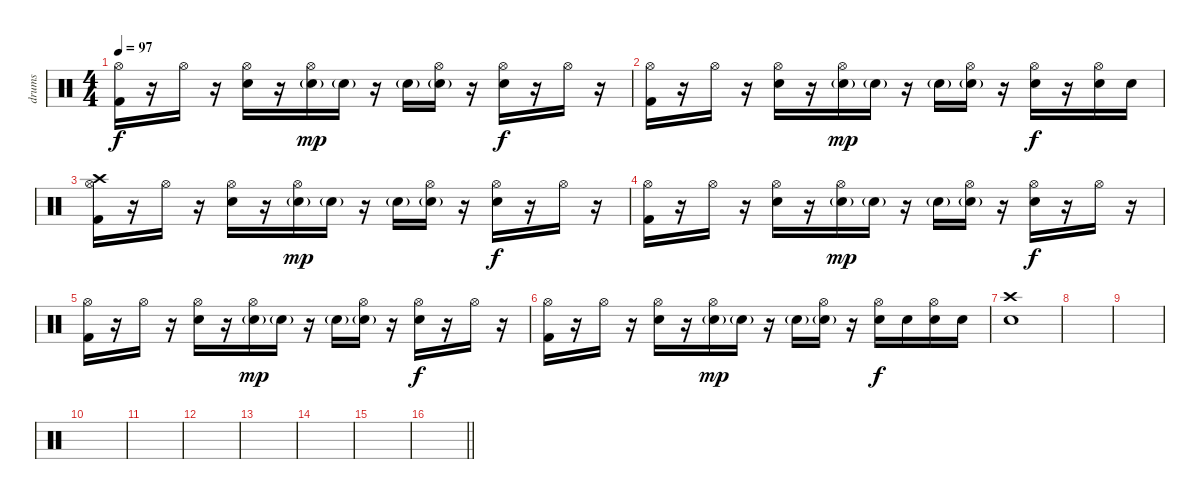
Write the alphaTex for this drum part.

\track ("drums" "drums") {instrument percussion}
\staff {score}
\articulation defaults
\ts (4 4)
\tempo 97
\clef neutral
\ks c
("Kick (hit) 2" "Hi-Hat (open)").16{dy f} r.16 "Hi-Hat (open)".16 r.16 ("Electric Snare (hit)" "Hi-Hat (open)").16 r.16 ("Electric Snare (hit)"{g} "Hi-Hat (open)").16{dy mp} "Electric Snare (hit)"{g}.16 r.16 "Electric Snare (hit)"{g}.16 ("Electric Snare (hit)"{g} "Hi-Hat (open)").16 r.16 ("Electric Snare (hit)" "Hi-Hat (open)").16{dy f} r.16 "Hi-Hat (open)".16 r.16 |
("Kick (hit) 2" "Hi-Hat (open)").16 r.16 "Hi-Hat (open)".16 r.16 ("Electric Snare (hit)" "Hi-Hat (open)").16 r.16 ("Electric Snare (hit)"{g} "Hi-Hat (open)").16{dy mp} "Electric Snare (hit)"{g}.16 r.16 "Electric Snare (hit)"{g}.16 ("Electric Snare (hit)"{g} "Hi-Hat (open)").16 r.16 ("Electric Snare (hit)" "Hi-Hat (open)").16{dy f} r.16 ("Electric Snare (hit)" "Hi-Hat (open)").16 "Electric Snare (hit)".16 |
("Kick (hit) 2" "Hi-Hat (open)" "Crash high (hit)").16 r.16 "Hi-Hat (open)".16 r.16 ("Electric Snare (hit)" "Hi-Hat (open)").16 r.16 ("Electric Snare (hit)"{g} "Hi-Hat (open)").16{dy mp} "Electric Snare (hit)"{g}.16 r.16 "Electric Snare (hit)"{g}.16 ("Electric Snare (hit)"{g} "Hi-Hat (open)").16 r.16 ("Electric Snare (hit)" "Hi-Hat (open)").16{dy f} r.16 "Hi-Hat (open)".16 r.16 |
("Kick (hit) 2" "Hi-Hat (open)").16 r.16 "Hi-Hat (open)".16 r.16 ("Electric Snare (hit)" "Hi-Hat (open)").16 r.16 ("Electric Snare (hit)"{g} "Hi-Hat (open)").16{dy mp} "Electric Snare (hit)"{g}.16 r.16 "Electric Snare (hit)"{g}.16 ("Electric Snare (hit)"{g} "Hi-Hat (open)").16 r.16 ("Electric Snare (hit)" "Hi-Hat (open)").16{dy f} r.16 "Hi-Hat (open)".16 r.16 |
("Kick (hit) 2" "Hi-Hat (open)").16 r.16 "Hi-Hat (open)".16 r.16 ("Electric Snare (hit)" "Hi-Hat (open)").16 r.16 ("Electric Snare (hit)"{g} "Hi-Hat (open)").16{dy mp} "Electric Snare (hit)"{g}.16 r.16 "Electric Snare (hit)"{g}.16 ("Electric Snare (hit)"{g} "Hi-Hat (open)").16 r.16 ("Electric Snare (hit)" "Hi-Hat (open)").16{dy f} r.16 "Hi-Hat (open)".16 r.16 |
("Kick (hit) 2" "Hi-Hat (open)").16 r.16 "Hi-Hat (open)".16 r.16 ("Electric Snare (hit)" "Hi-Hat (open)").16 r.16 ("Electric Snare (hit)"{g} "Hi-Hat (open)").16{dy mp} "Electric Snare (hit)"{g}.16 r.16 "Electric Snare (hit)"{g}.16 ("Electric Snare (hit)"{g} "Hi-Hat (open)").16 r.16 ("Electric Snare (hit)" "Hi-Hat (open)").16{dy f} "Electric Snare (hit)".16 ("Electric Snare (hit)" "Hi-Hat (open)").16 "Electric Snare (hit)".16 |
("Electric Snare (hit)" "Crash high (hit)").1 |
|
|
|
|
|
|
|
|
\barLineRight lightlight
